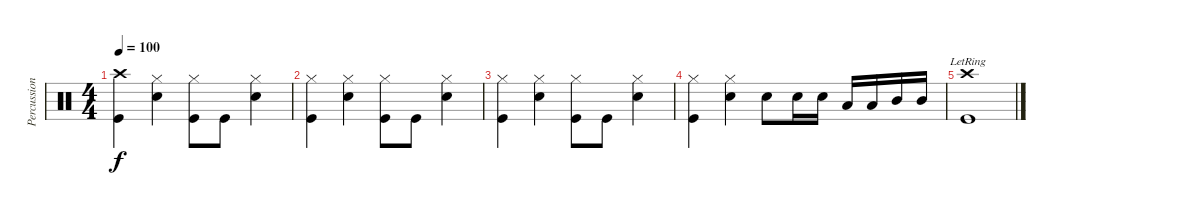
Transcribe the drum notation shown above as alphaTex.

\track ("Percussion" "Percussion") {instrument percussion}
\staff {score}
\articulation defaults
\ts (4 4)
\tempo 100
\clef neutral
\ks c
("Kick (hit)" "Crash high (hit)").4{dy f} ("Snare (hit) 2" "Hi-Hat (closed)").4 ("Kick (hit)" "Hi-Hat (closed)").8 "Kick (hit)".8 ("Snare (hit) 2" "Hi-Hat (closed)").4 |
("Kick (hit)" "Hi-Hat (closed)").4 ("Snare (hit) 2" "Hi-Hat (closed)").4 ("Kick (hit)" "Hi-Hat (closed)").8 "Kick (hit)".8 ("Snare (hit) 2" "Hi-Hat (closed)").4 |
("Kick (hit)" "Hi-Hat (closed)").4 ("Snare (hit) 2" "Hi-Hat (closed)").4 ("Kick (hit)" "Hi-Hat (closed)").8 "Kick (hit)".8 ("Snare (hit) 2" "Hi-Hat (closed)").4 |
("Kick (hit)" "Hi-Hat (closed)").4 ("Snare (hit) 2" "Hi-Hat (closed)").4 "Snare (hit) 2".8 "Snare (hit) 2".16 "Snare (hit) 2".16 "Low Tom (hit)".16 "Low Tom (hit)".16 "Mid Tom (hit)".16 "Mid Tom (hit)".16 |
("Kick (hit)"{lr} "Crash high (hit)"{lr}).1
